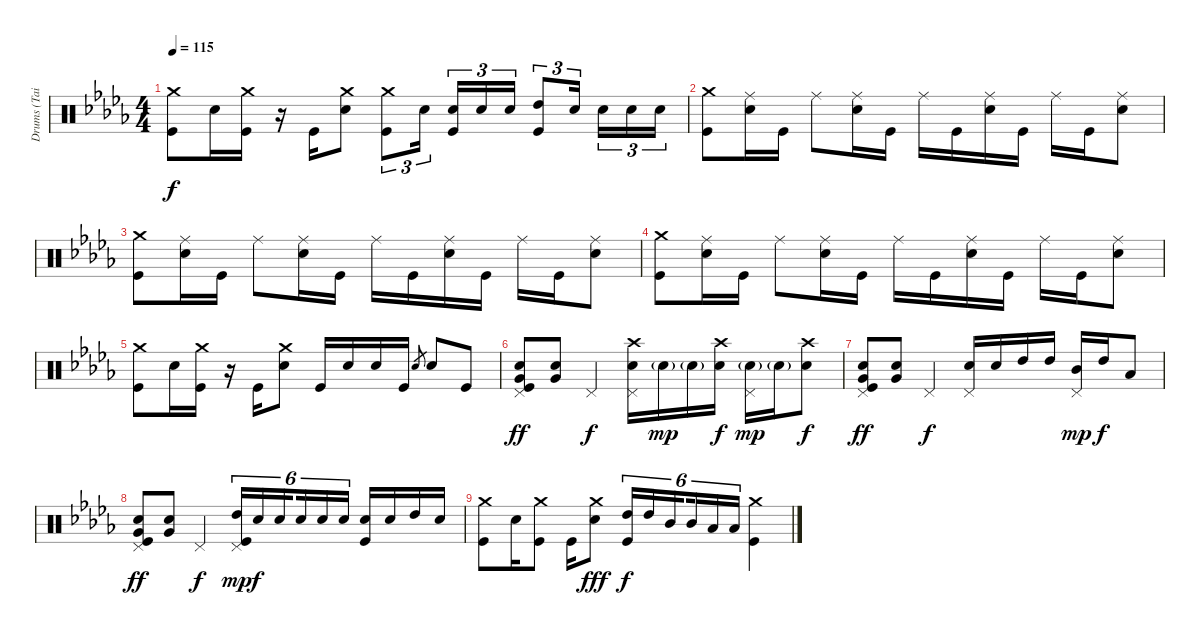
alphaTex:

\track ("Drums (Tainaka Ritsu)" "Drums (Tai") {instrument percussion}
\staff {score}
\articulation defaults
\ts (4 4)
\tempo 115
\clef neutral
\ks db
("Crash medium (hit)" "Kick (hit)").8{dy f} "Snare (hit) 2".16 ("Crash medium (hit)" "Kick (hit)").16 r.16 "Kick (hit)".16 ("Crash medium (hit)" "Snare (hit) 2").8 ("Crash medium (hit)" "Kick (hit)").8{tu (3 2)} "Snare (hit) 2".16{tu (3 2) beam splitsecondary} ("Snare (hit) 2" "Kick (hit)").16{tu (3 2)} "Snare (hit) 2".16{tu (3 2)} "Snare (hit) 2".16{tu (3 2)} ("High Tom (hit)" "Kick (hit)").8{tu (3 2)} "Snare (hit) 2".16{tu (3 2) beam splitsecondary} "Snare (hit) 2".16{tu (3 2)} "Snare (hit) 2".16{tu (3 2)} "Snare (hit) 2".16{tu (3 2)} |
("Crash medium (hit)" "Kick (hit)").8 ("Ride (middle)" "Snare (hit) 2").16 "Kick (hit)".16 "Ride (middle)".8 ("Ride (middle)" "Snare (hit) 2").16 "Kick (hit)".16 "Ride (middle)".16 "Kick (hit)".16 ("Ride (middle)" "Snare (hit) 2").16 "Kick (hit)".16 "Ride (middle)".16 "Kick (hit)".16 ("Ride (middle)" "Snare (hit) 2").8 |
("Crash medium (hit)" "Kick (hit)").8 ("Ride (middle)" "Snare (hit) 2").16 "Kick (hit)".16 "Ride (middle)".8 ("Ride (middle)" "Snare (hit) 2").16 "Kick (hit)".16 "Ride (middle)".16 "Kick (hit)".16 ("Ride (middle)" "Snare (hit) 2").16 "Kick (hit)".16 "Ride (middle)".16 "Kick (hit)".16 ("Ride (middle)" "Snare (hit) 2").8 |
("Crash medium (hit)" "Kick (hit)").8 ("Ride (middle)" "Snare (hit) 2").16 "Kick (hit)".16 "Ride (middle)".8 ("Ride (middle)" "Snare (hit) 2").16 "Kick (hit)".16 "Ride (middle)".16 "Kick (hit)".16 ("Ride (middle)" "Snare (hit) 2").16 "Kick (hit)".16 "Ride (middle)".16 "Kick (hit)".16 ("Ride (middle)" "Snare (hit) 2").8 |
("Crash medium (hit)" "Kick (hit)").8 "Snare (hit) 2".16 ("Crash medium (hit)" "Kick (hit)").16 r.16 "Kick (hit)".16 ("Crash medium (hit)" "Snare (hit) 2").8 "Kick (hit)".16 "Snare (hit) 2".16 "Snare (hit) 2".16 "Kick (hit)".16 "Snare (hit) 2".8{gr} "Snare (hit) 2".8 "Kick (hit)".8 |
("Pedal Hi-Hat (hit)" "Snare (hit) 2" "Very Low Tom (hit)" "Kick (hit)").8{dy ff} ("Snare (hit) 2" "Very Low Tom (hit)").8 "Pedal Hi-Hat (hit)".4{dy f} ("Pedal Hi-Hat (hit)" "Crash high (hit)" "Snare (hit) 2").16 "Snare (hit) 2"{g}.16{dy mp} "Snare (hit) 2"{g}.16 ("Crash high (hit)" "Snare (hit) 2").16{dy f} ("Pedal Hi-Hat (hit)" "Snare (hit) 2"{g}).16{dy mp} "Snare (hit) 2"{g}.16 ("Crash high (hit)" "Snare (hit) 2").8{dy f} |
("Pedal Hi-Hat (hit)" "Snare (hit) 2" "Very Low Tom (hit)" "Kick (hit)").8{dy ff} ("Snare (hit) 2" "Very Low Tom (hit)").8 "Pedal Hi-Hat (hit)".4{dy f} ("Pedal Hi-Hat (hit)" "Snare (hit) 2").16 "Snare (hit) 2".16 "High Tom (hit)".16 "High Tom (hit)".16 ("Pedal Hi-Hat (hit)" "Mid Tom (hit)").16{dy mp} "High Tom (hit)".16{dy f} "Low Tom (hit)".8 |
("Pedal Hi-Hat (hit)" "Snare (hit) 2" "Very Low Tom (hit)" "Kick (hit)").8{dy ff} ("Snare (hit) 2" "Very Low Tom (hit)").8 "Pedal Hi-Hat (hit)".4{dy f} ("Pedal Hi-Hat (hit)" "High Tom (hit)" "Kick (hit)").16{tu (6 4) dy mp} "Snare (hit) 2".16{tu (6 4) dy f} "Snare (hit) 2".16{tu (6 4) beam splitsecondary} "Snare (hit) 2".16{tu (6 4)} "Snare (hit) 2".16{tu (6 4)} "Snare (hit) 2".16{tu (6 4)} ("Snare (hit) 2" "Kick (hit)").16 "Snare (hit) 2".16 "High Tom (hit)".16 "Snare (hit) 2".16 |
("Crash medium (hit)" "Kick (hit)").8 "Snare (hit) 2".16 ("Crash medium (hit)" "Kick (hit)").8 "Kick (hit)".16 ("Crash medium (hit)" "Snare (hit) 2").8{dy fff} ("High Tom (hit)" "Kick (hit)").16{tu (6 4) dy f} "High Tom (hit)".16{tu (6 4)} "Mid Tom (hit)".16{tu (6 4) beam splitsecondary} "Mid Tom (hit)".16{tu (6 4)} "Low Tom (hit)".16{tu (6 4)} "Low Tom (hit)".16{tu (6 4)} ("Crash medium (hit)" "Kick (hit)").4
